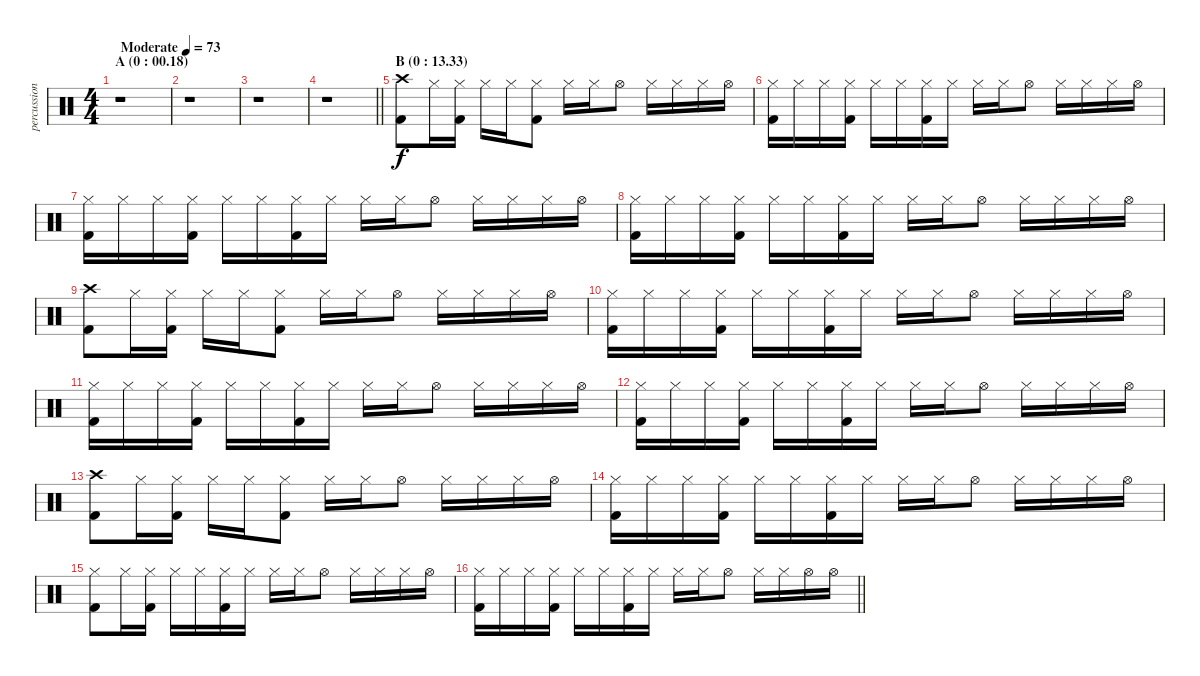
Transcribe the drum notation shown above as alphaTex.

\track ("percussion" "percussion") {instrument percussion}
\staff {score}
\articulation defaults
\ts (4 4)
\section ("" "A (0 : 00.18)")
\tempo (73 "Moderate")
\clef neutral
\ks c
r.1{dy f} |
r.1 |
r.1 |
\barLineRight lightlight
r.1 |
\section ("" "B (0 : 13.33)")
("Crash high (hit)" "Kick (hit) 2").8 "Hi-Hat (closed)".16 ("Hi-Hat (closed)" "Kick (hit) 2").16 "Hi-Hat (closed)".16 "Hi-Hat (closed)".16 ("Hi-Hat (closed)" "Kick (hit) 2").8 "Hi-Hat (closed)".16 "Hi-Hat (closed)".16 "Hi-Hat (open)".8 "Hi-Hat (closed)".16 "Hi-Hat (closed)".16 "Hi-Hat (closed)".16 "Hi-Hat (open)".16 |
("Hi-Hat (closed)" "Kick (hit) 2").16 "Hi-Hat (closed)".16 "Hi-Hat (closed)".16 ("Hi-Hat (closed)" "Kick (hit) 2").16 "Hi-Hat (closed)".16 "Hi-Hat (closed)".16 ("Hi-Hat (closed)" "Kick (hit) 2").16 "Hi-Hat (closed)".16 "Hi-Hat (closed)".16 "Hi-Hat (closed)".16 "Hi-Hat (open)".8 "Hi-Hat (closed)".16 "Hi-Hat (closed)".16 "Hi-Hat (closed)".16 "Hi-Hat (open)".16 |
("Hi-Hat (closed)" "Kick (hit) 2").16 "Hi-Hat (closed)".16 "Hi-Hat (closed)".16 ("Hi-Hat (closed)" "Kick (hit) 2").16 "Hi-Hat (closed)".16 "Hi-Hat (closed)".16 ("Hi-Hat (closed)" "Kick (hit) 2").16 "Hi-Hat (closed)".16 "Hi-Hat (closed)".16 "Hi-Hat (closed)".16 "Hi-Hat (open)".8 "Hi-Hat (closed)".16 "Hi-Hat (closed)".16 "Hi-Hat (closed)".16 "Hi-Hat (open)".16 |
("Hi-Hat (closed)" "Kick (hit) 2").16 "Hi-Hat (closed)".16 "Hi-Hat (closed)".16 ("Hi-Hat (closed)" "Kick (hit) 2").16 "Hi-Hat (closed)".16 "Hi-Hat (closed)".16 ("Hi-Hat (closed)" "Kick (hit) 2").16 "Hi-Hat (closed)".16 "Hi-Hat (closed)".16 "Hi-Hat (closed)".16 "Hi-Hat (open)".8 "Hi-Hat (closed)".16 "Hi-Hat (closed)".16 "Hi-Hat (closed)".16 "Hi-Hat (open)".16 |
("Crash high (hit)" "Kick (hit) 2").8 "Hi-Hat (closed)".16 ("Hi-Hat (closed)" "Kick (hit) 2").16 "Hi-Hat (closed)".16 "Hi-Hat (closed)".16 ("Hi-Hat (closed)" "Kick (hit) 2").8 "Hi-Hat (closed)".16 "Hi-Hat (closed)".16 "Hi-Hat (open)".8 "Hi-Hat (closed)".16 "Hi-Hat (closed)".16 "Hi-Hat (closed)".16 "Hi-Hat (open)".16 |
("Hi-Hat (closed)" "Kick (hit) 2").16 "Hi-Hat (closed)".16 "Hi-Hat (closed)".16 ("Hi-Hat (closed)" "Kick (hit) 2").16 "Hi-Hat (closed)".16 "Hi-Hat (closed)".16 ("Hi-Hat (closed)" "Kick (hit) 2").16 "Hi-Hat (closed)".16 "Hi-Hat (closed)".16 "Hi-Hat (closed)".16 "Hi-Hat (open)".8 "Hi-Hat (closed)".16 "Hi-Hat (closed)".16 "Hi-Hat (closed)".16 "Hi-Hat (open)".16 |
("Hi-Hat (closed)" "Kick (hit) 2").16 "Hi-Hat (closed)".16 "Hi-Hat (closed)".16 ("Hi-Hat (closed)" "Kick (hit) 2").16 "Hi-Hat (closed)".16 "Hi-Hat (closed)".16 ("Hi-Hat (closed)" "Kick (hit) 2").16 "Hi-Hat (closed)".16 "Hi-Hat (closed)".16 "Hi-Hat (closed)".16 "Hi-Hat (open)".8 "Hi-Hat (closed)".16 "Hi-Hat (closed)".16 "Hi-Hat (closed)".16 "Hi-Hat (open)".16 |
("Hi-Hat (closed)" "Kick (hit) 2").16 "Hi-Hat (closed)".16 "Hi-Hat (closed)".16 ("Hi-Hat (closed)" "Kick (hit) 2").16 "Hi-Hat (closed)".16 "Hi-Hat (closed)".16 ("Hi-Hat (closed)" "Kick (hit) 2").16 "Hi-Hat (closed)".16 "Hi-Hat (closed)".16 "Hi-Hat (closed)".16 "Hi-Hat (open)".8 "Hi-Hat (closed)".16 "Hi-Hat (closed)".16 "Hi-Hat (closed)".16 "Hi-Hat (open)".16 |
("Crash high (hit)" "Kick (hit) 2").8 "Hi-Hat (closed)".16 ("Hi-Hat (closed)" "Kick (hit) 2").16 "Hi-Hat (closed)".16 "Hi-Hat (closed)".16 ("Hi-Hat (closed)" "Kick (hit) 2").8 "Hi-Hat (closed)".16 "Hi-Hat (closed)".16 "Hi-Hat (open)".8 "Hi-Hat (closed)".16 "Hi-Hat (closed)".16 "Hi-Hat (closed)".16 "Hi-Hat (open)".16 |
("Hi-Hat (closed)" "Kick (hit) 2").16 "Hi-Hat (closed)".16 "Hi-Hat (closed)".16 ("Hi-Hat (closed)" "Kick (hit) 2").16 "Hi-Hat (closed)".16 "Hi-Hat (closed)".16 ("Hi-Hat (closed)" "Kick (hit) 2").16 "Hi-Hat (closed)".16 "Hi-Hat (closed)".16 "Hi-Hat (closed)".16 "Hi-Hat (open)".8 "Hi-Hat (closed)".16 "Hi-Hat (closed)".16 "Hi-Hat (closed)".16 "Hi-Hat (open)".16 |
("Hi-Hat (closed)" "Kick (hit) 2").8 "Hi-Hat (closed)".16 ("Hi-Hat (closed)" "Kick (hit) 2").16 "Hi-Hat (closed)".16 "Hi-Hat (closed)".16 ("Hi-Hat (closed)" "Kick (hit) 2").16 "Hi-Hat (closed)".16 "Hi-Hat (closed)".16 "Hi-Hat (closed)".16 "Hi-Hat (open)".8 "Hi-Hat (closed)".16 "Hi-Hat (closed)".16 "Hi-Hat (closed)".16 "Hi-Hat (open)".16 |
\barLineRight lightlight
("Hi-Hat (closed)" "Kick (hit) 2").16 "Hi-Hat (closed)".16 "Hi-Hat (closed)".16 ("Hi-Hat (closed)" "Kick (hit) 2").16 "Hi-Hat (closed)".16 "Hi-Hat (closed)".16 ("Hi-Hat (closed)" "Kick (hit) 2").16 "Hi-Hat (closed)".16 "Hi-Hat (closed)".16 "Hi-Hat (closed)".16 "Hi-Hat (open)".8 "Hi-Hat (closed)".16 "Hi-Hat (closed)".16 "Hi-Hat (open)".16 "Hi-Hat (open)".16
